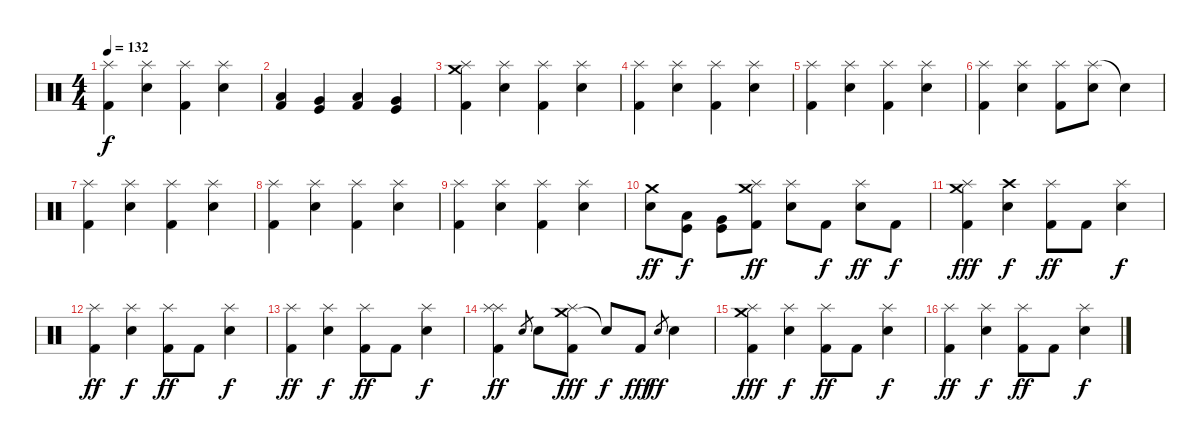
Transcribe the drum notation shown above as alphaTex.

\track "" {instrument percussion}
\staff {score}
\articulation defaults
\ts (4 4)
\tempo 132
\clef neutral
\ks c
("Splash (hit)" "Kick (hit) 2").4{dy f} ("Splash (hit)" "Electric Snare (hit)").4 ("Splash (hit)" "Kick (hit) 2").4 ("Splash (hit)" "Electric Snare (hit)").4 |
("Low Tom (hit)" "Kick (hit) 2").4 ("Very Low Tom (hit)" "Kick (hit)").4 ("Low Tom (hit)" "Kick (hit) 2").4 ("Very Low Tom (hit)" "Kick (hit)").4 |
("Splash (hit)" "Kick (hit) 2" "Crash medium (hit)").4 ("Splash (hit)" "Electric Snare (hit)").4 ("Splash (hit)" "Kick (hit) 2").4 ("Splash (hit)" "Electric Snare (hit)").4 |
("Splash (hit)" "Kick (hit) 2").4 ("Splash (hit)" "Electric Snare (hit)").4 ("Splash (hit)" "Kick (hit) 2").4 ("Splash (hit)" "Electric Snare (hit)").4 |
("Splash (hit)" "Kick (hit) 2").4 ("Splash (hit)" "Electric Snare (hit)").4 ("Splash (hit)" "Kick (hit) 2").4 ("Splash (hit)" "Electric Snare (hit)").4 |
("Splash (hit)" "Kick (hit) 2").4 ("Splash (hit)" "Electric Snare (hit)").4 ("Splash (hit)" "Kick (hit) 2").8 ("Splash (hit)" "Electric Snare (hit)").8 "Snare (hit)"{t}.4 |
("Splash (hit)" "Kick (hit) 2").4 ("Splash (hit)" "Electric Snare (hit)").4 ("Splash (hit)" "Kick (hit) 2").4 ("Splash (hit)" "Electric Snare (hit)").4 |
("Splash (hit)" "Kick (hit) 2").4 ("Splash (hit)" "Electric Snare (hit)").4 ("Splash (hit)" "Kick (hit) 2").4 ("Splash (hit)" "Electric Snare (hit)").4 |
("Splash (hit)" "Kick (hit) 2").4 ("Splash (hit)" "Electric Snare (hit)").4 ("Splash (hit)" "Kick (hit) 2").4 ("Splash (hit)" "Electric Snare (hit)").4 |
("Crash medium (hit)" "Electric Snare (hit)").8{dy ff} ("Low Tom (hit)" "Kick (hit)").8{dy f} ("Very Low Tom (hit)" "Kick (hit)").8 ("Crash medium (hit)" "Kick (hit) 2" "Splash (hit)").8{dy ff} ("Splash (hit)" "Electric Snare (hit)").8 "Kick (hit) 2".8{dy f} ("Splash (hit)" "Electric Snare (hit)").8{dy ff} "Kick (hit) 2".8{dy f} |
("Splash (hit)" "Kick (hit) 2" "Crash medium (hit)").4{dy fff} ("Crash high (hit)" "Electric Snare (hit)").4{dy f} ("Splash (hit)" "Kick (hit) 2").8{dy ff} "Kick (hit) 2".8 ("Splash (hit)" "Electric Snare (hit)").4{dy f} |
("Splash (hit)" "Kick (hit) 2").4{dy ff} ("Splash (hit)" "Electric Snare (hit)").4{dy f} ("Splash (hit)" "Kick (hit) 2").8{dy ff} "Kick (hit) 2".8 ("Splash (hit)" "Electric Snare (hit)").4{dy f} |
("Splash (hit)" "Kick (hit) 2").4{dy ff} ("Splash (hit)" "Electric Snare (hit)").4{dy f} ("Splash (hit)" "Kick (hit) 2").8{dy ff} "Kick (hit) 2".8 ("Splash (hit)" "Electric Snare (hit)").4{dy f} |
("Splash (hit)" "Kick (hit) 2" "Splash (hit)").4{dy ff} "Electric Snare (hit)".8{gr} "Electric Snare (hit)".8 ("Crash medium (hit)" "Kick (hit) 2" "Splash (hit)").8{dy fff} "Snare (hit)"{t}.8{dy f} "Kick (hit) 2".8{dy fff} "Electric Snare (hit)".8{gr dy ff} "Electric Snare (hit)".4 |
("Splash (hit)" "Kick (hit) 2" "Crash medium (hit)").4{dy fff} ("Splash (hit)" "Electric Snare (hit)").4{dy f} ("Splash (hit)" "Kick (hit) 2").8{dy ff} "Kick (hit) 2".8 ("Splash (hit)" "Electric Snare (hit)").4{dy f} |
("Splash (hit)" "Kick (hit) 2").4{dy ff} ("Splash (hit)" "Electric Snare (hit)").4{dy f} ("Splash (hit)" "Kick (hit) 2").8{dy ff} "Kick (hit) 2".8 ("Splash (hit)" "Electric Snare (hit)").4{dy f}
